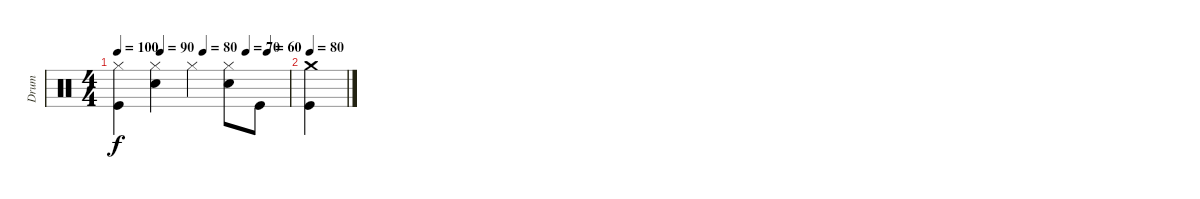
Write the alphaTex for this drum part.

\track ("Drum" "Drum") {instrument percussion}
\staff {score}
\articulation defaults
\ts (4 4)
\tempo 100
\tempo (90 0.25)
\tempo (80 0.5)
\tempo (70 0.75)
\tempo (60 0.875)
\clef neutral
\ks c
("Hi-Hat (closed)" "Kick (hit)").4{dy f} ("Hi-Hat (closed)" "Snare (hit) 2").4 "Hi-Hat (closed)".4 ("Hi-Hat (closed)" "Snare (hit) 2").8 "Kick (hit)".8 |
\tempo 80
("Crash medium (hit)" "Kick (hit)").4
